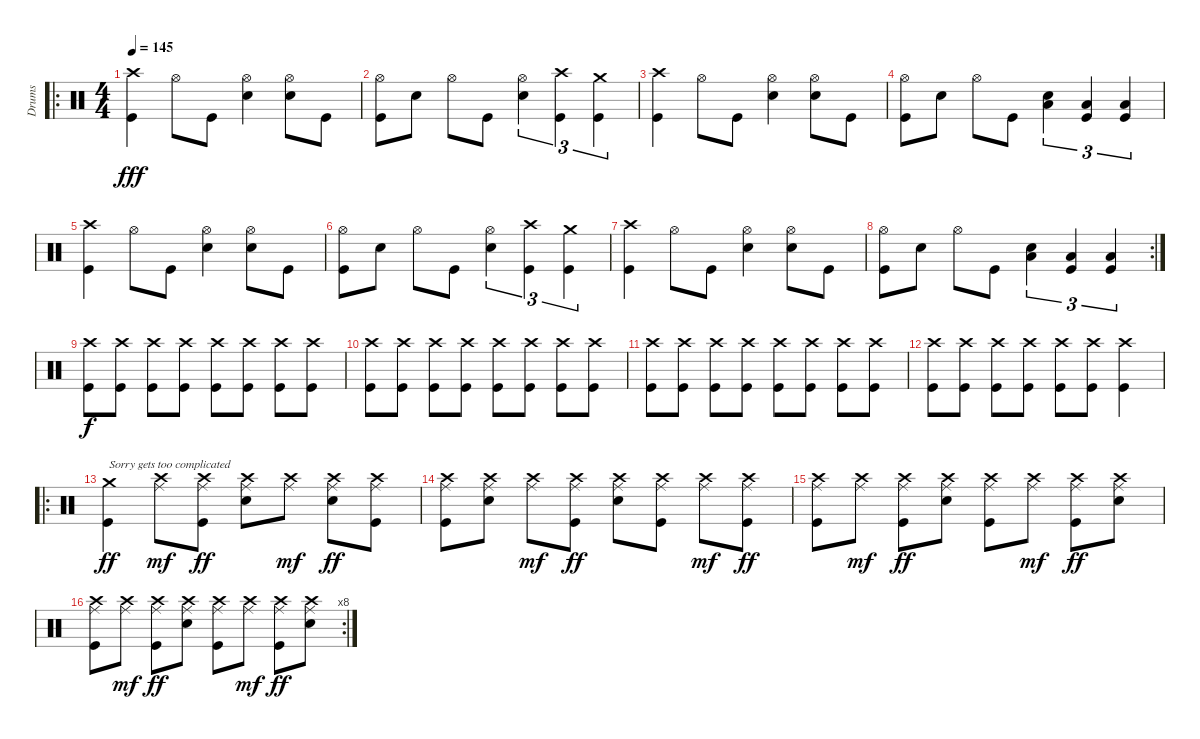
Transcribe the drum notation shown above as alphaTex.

\track ("Drums" "Drums") {instrument percussion}
\staff {score}
\articulation defaults
\ro
\ts (4 4)
\tempo 145
\clef neutral
\ks c
("Crash high (hit)" "Kick (hit)").4{dy fff} "Hi-Hat (open)".8 "Kick (hit)".8 ("Hi-Hat (open)" "Electric Snare (hit)").4 ("Hi-Hat (open)" "Electric Snare (hit)").8 "Kick (hit)".8 |
("Hi-Hat (open)" "Kick (hit)").8 "Electric Snare (hit)".8 "Hi-Hat (open)".8 "Kick (hit)".8 ("Hi-Hat (open)" "Electric Snare (hit)").4{tu (3 2)} ("Crash high (hit)" "Kick (hit)").4{tu (3 2)} ("Crash medium (hit)" "Kick (hit)").4{tu (3 2)} |
("Crash high (hit)" "Kick (hit)").4 "Hi-Hat (open)".8 "Kick (hit)".8 ("Hi-Hat (open)" "Electric Snare (hit)").4 ("Hi-Hat (open)" "Electric Snare (hit)").8 "Kick (hit)".8 |
("Hi-Hat (open)" "Kick (hit)").8 "Electric Snare (hit)".8 "Hi-Hat (open)".8 "Kick (hit)".8 ("Low Tom (hit)" "Electric Snare (hit)").4{tu (3 2)} ("Low Tom (hit)" "Kick (hit)").4{tu (3 2)} ("Low Floor Tom (hit)" "Kick (hit)").4{tu (3 2)} |
("Crash high (hit)" "Kick (hit)").4 "Hi-Hat (open)".8 "Kick (hit)".8 ("Hi-Hat (open)" "Electric Snare (hit)").4 ("Hi-Hat (open)" "Electric Snare (hit)").8 "Kick (hit)".8 |
("Hi-Hat (open)" "Kick (hit)").8 "Electric Snare (hit)".8 "Hi-Hat (open)".8 "Kick (hit)".8 ("Hi-Hat (open)" "Electric Snare (hit)").4{tu (3 2)} ("Crash high (hit)" "Kick (hit)").4{tu (3 2)} ("Crash medium (hit)" "Kick (hit)").4{tu (3 2)} |
("Crash high (hit)" "Kick (hit)").4 "Hi-Hat (open)".8 "Kick (hit)".8 ("Hi-Hat (open)" "Electric Snare (hit)").4 ("Hi-Hat (open)" "Electric Snare (hit)").8 "Kick (hit)".8 |
\rc 2
("Hi-Hat (open)" "Kick (hit)").8 "Electric Snare (hit)".8 "Hi-Hat (open)".8 "Kick (hit)".8 ("Low Tom (hit)" "Electric Snare (hit)").4{tu (3 2)} ("Low Tom (hit)" "Kick (hit)").4{tu (3 2)} ("Low Floor Tom (hit)" "Kick (hit)").4{tu (3 2)} |
("Crash high (hit)" "Kick (hit)").8{dy f} ("Crash high (hit)" "Kick (hit)").8 ("Crash high (hit)" "Kick (hit)").8 ("Crash high (hit)" "Kick (hit)").8 ("Crash high (hit)" "Kick (hit)").8 ("Crash high (hit)" "Kick (hit)").8 ("Crash high (hit)" "Kick (hit)").8 ("Crash high (hit)" "Kick (hit)").8 |
("Crash high (hit)" "Kick (hit)").8 ("Crash high (hit)" "Kick (hit)").8 ("Crash high (hit)" "Kick (hit)").8 ("Crash high (hit)" "Kick (hit)").8 ("Crash high (hit)" "Kick (hit)").8 ("Crash high (hit)" "Kick (hit)").8 ("Crash high (hit)" "Kick (hit)").8 ("Crash high (hit)" "Kick (hit)").8 |
("Crash high (hit)" "Kick (hit)").8 ("Crash high (hit)" "Kick (hit)").8 ("Crash high (hit)" "Kick (hit)").8 ("Crash high (hit)" "Kick (hit)").8 ("Crash high (hit)" "Kick (hit)").8 ("Crash high (hit)" "Kick (hit)").8 ("Crash high (hit)" "Kick (hit)").8 ("Crash high (hit)" "Kick (hit)").8 |
("Crash high (hit)" "Kick (hit)").8 ("Crash high (hit)" "Kick (hit)").8 ("Crash high (hit)" "Kick (hit)").8 ("Crash high (hit)" "Kick (hit)").8 ("Crash high (hit)" "Kick (hit)").8 ("Crash high (hit)" "Kick (hit)").8 ("Crash high (hit)" "Kick (hit)").4 |
\ro
("Crash medium (hit)" "Kick (hit)").4{txt "Sorry gets too complicated" dy ff} ("Crash high (hit)" "Ride (middle)").8{dy mf} ("Crash high (hit)" "Ride (middle)" "Kick (hit)").8{dy ff} ("Crash high (hit)" "Ride (middle)" "Electric Snare (hit)").8 ("Crash high (hit)" "Ride (middle)").8{dy mf} ("Crash high (hit)" "Ride (middle)" "Electric Snare (hit)").8{dy ff} ("Crash high (hit)" "Ride (middle)" "Kick (hit)").8 |
("Crash high (hit)" "Ride (middle)" "Kick (hit)").8 ("Crash high (hit)" "Ride (middle)" "Electric Snare (hit)").8 ("Crash high (hit)" "Ride (middle)").8{dy mf} ("Crash high (hit)" "Ride (middle)" "Kick (hit)").8{dy ff} ("Crash high (hit)" "Ride (middle)" "Electric Snare (hit)").8 ("Crash high (hit)" "Ride (middle)" "Kick (hit)").8 ("Crash high (hit)" "Ride (middle)").8{dy mf} ("Crash high (hit)" "Ride (middle)" "Kick (hit)").8{dy ff} |
("Crash high (hit)" "Ride (middle)" "Kick (hit)").8 ("Crash high (hit)" "Ride (middle)").8{dy mf} ("Crash high (hit)" "Ride (middle)" "Kick (hit)").8{dy ff} ("Crash high (hit)" "Ride (middle)" "Electric Snare (hit)").8 ("Crash high (hit)" "Ride (middle)" "Kick (hit)").8 ("Crash high (hit)" "Ride (middle)").8{dy mf} ("Crash high (hit)" "Ride (middle)" "Kick (hit)").8{dy ff} ("Crash high (hit)" "Ride (middle)" "Electric Snare (hit)").8 |
\rc 8
("Crash high (hit)" "Ride (middle)" "Kick (hit)").8 ("Crash high (hit)" "Ride (middle)").8{dy mf} ("Crash high (hit)" "Ride (middle)" "Kick (hit)").8{dy ff} ("Crash high (hit)" "Ride (middle)" "Electric Snare (hit)").8 ("Crash high (hit)" "Ride (middle)" "Kick (hit)").8 ("Crash high (hit)" "Ride (middle)").8{dy mf} ("Crash high (hit)" "Ride (middle)" "Kick (hit)").8{dy ff} ("Crash high (hit)" "Ride (middle)" "Electric Snare (hit)").8
